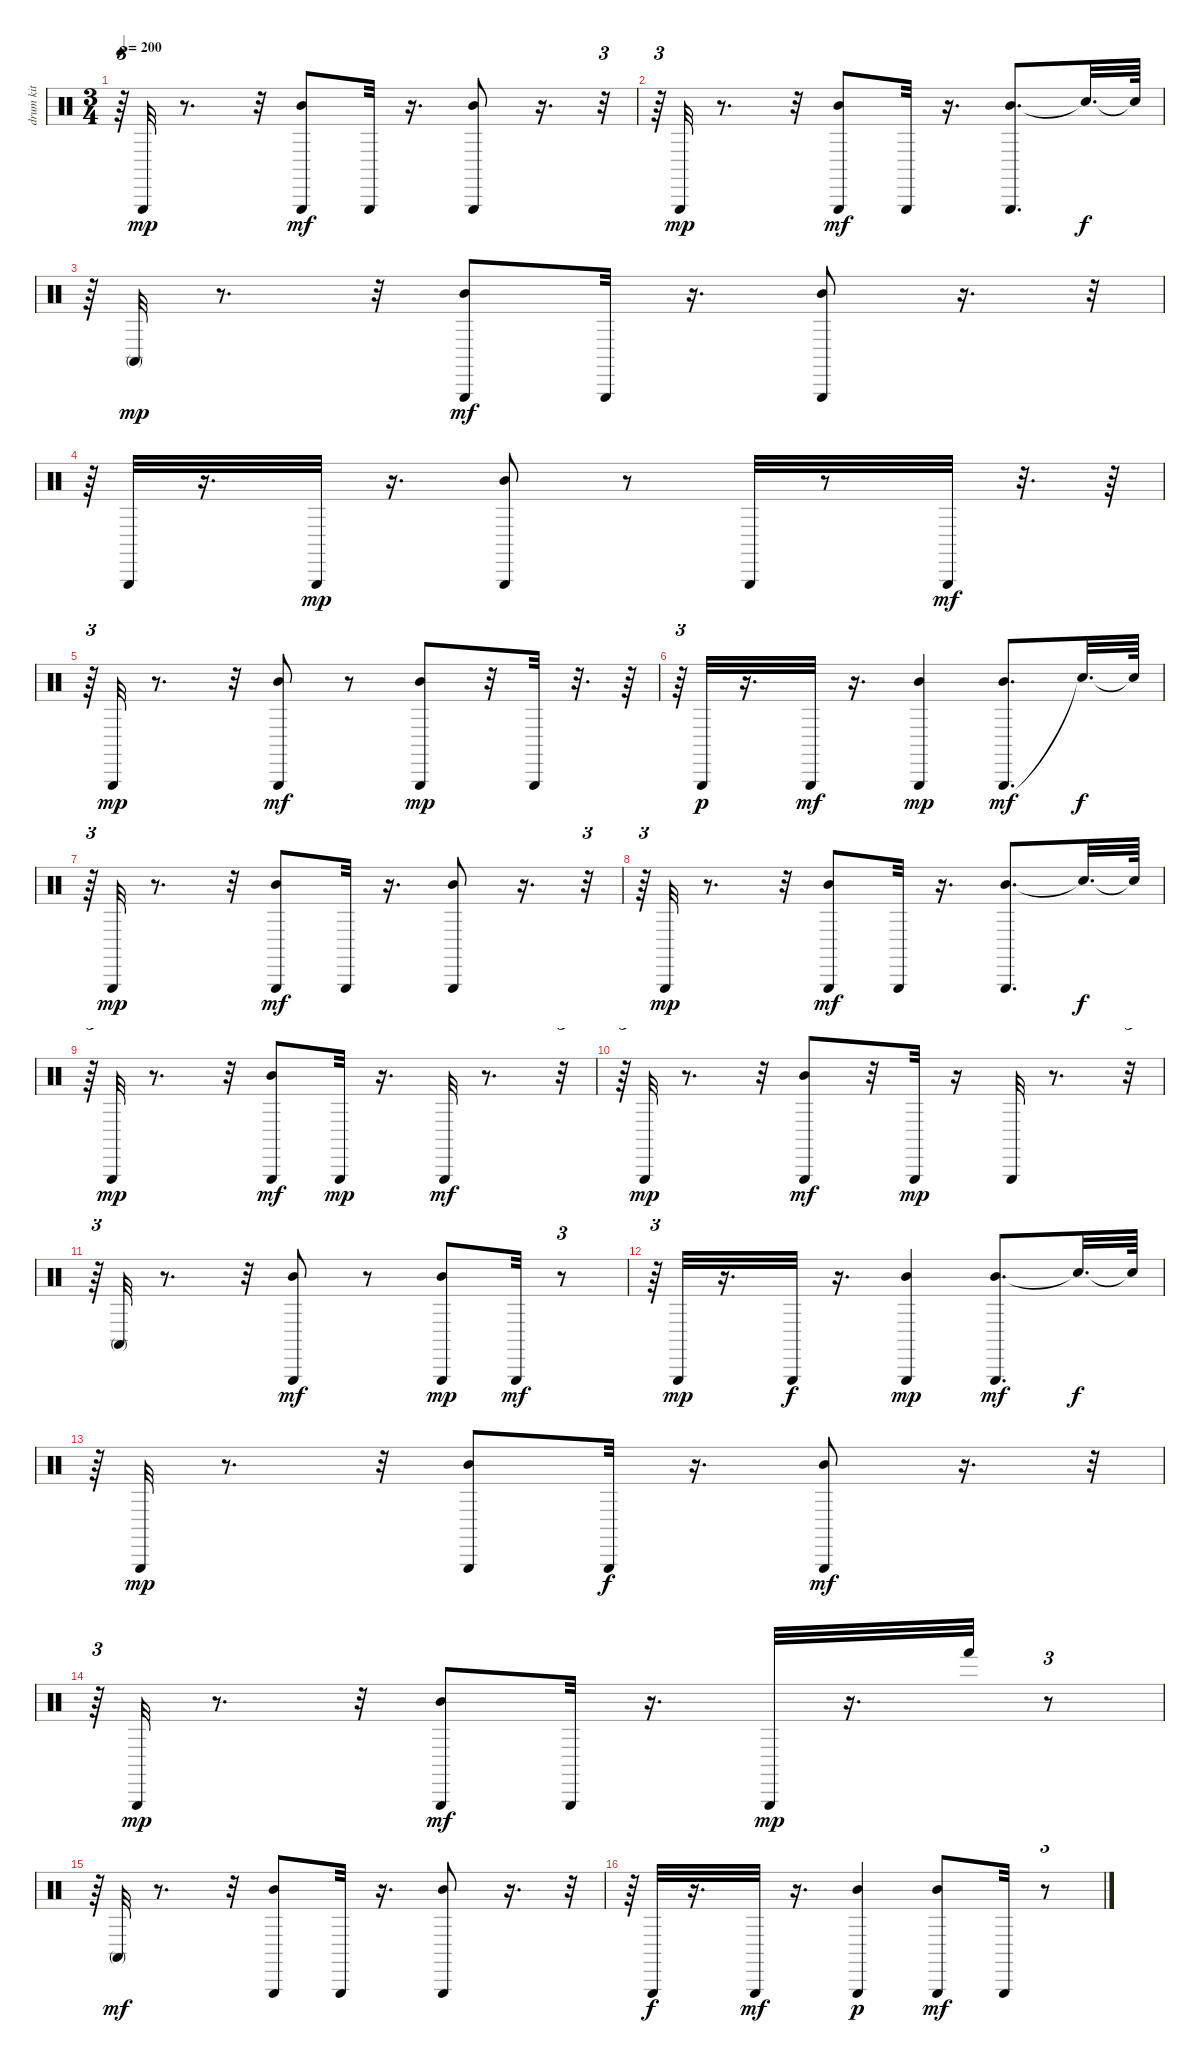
\track (" drum kit (hi-hat/cymbals)" " drum kit ") {instrument percussion}
\staff {score}
\articulation defaults
\ts (3 4)
\tempo 200
\clef neutral
\ks c
r.64{tu (3 2) dy mp} "Triangle (hit)".32 r.8{d} r.32 ("Triangle (hit)" "Mid Tom (hit)").8{dy mf} "Triangle (hit)".32 r.16{d} ("Triangle (hit)" "Mid Tom (hit)").8 r.16{d} r.32{tu (3 2)} |
r.64{tu (3 2)} "Triangle (hit)".32{dy mp} r.8{d} r.32 ("Mid Tom (hit)" "Triangle (hit)").8{dy mf} "Triangle (hit)".32 r.16{d} ("Mid Tom (hit)" "Triangle (hit)").8{d} "Snare (hit)"{t}.32{d dy f} "Snare (hit)"{t}.64 |
r.64{tu (3 2)} "Conga high (mute)".32{dy mp} r.8{d} r.32 ("Mid Tom (hit)" "Triangle (hit)").8{dy mf} "Triangle (hit)".32 r.16{d} ("Mid Tom (hit)" "Triangle (hit)").8 r.16{d} r.32{tu (3 2)} |
r.64{tu (3 2)} "Triangle (hit)".32 r.16{d} "Triangle (hit)".32{dy mp} r.16{d} ("Mid Tom (hit)" "Triangle (hit)").8 r.8 "Triangle (hit)".32 r.8 "Triangle (hit)".32{dy mf} r.32{d} r.64 |
r.64{tu (3 2)} "Triangle (hit)".32{dy mp} r.8{d} r.32 ("Mid Tom (hit)" "Triangle (hit)").8{dy mf} r.8 ("Mid Tom (hit)" "Triangle (hit)").8{dy mp} r.32 "Triangle (hit)".32 r.32{d} r.64 |
r.64{tu (3 2)} "Triangle (hit)".32{dy p} r.16{d} "Triangle (hit)".32{dy mf} r.16{d} ("Mid Tom (hit)" "Triangle (hit)").4{dy mp} ("Triangle (hit)" "Mid Tom (hit)").8{d dy mf} "Snare (hit)"{t}.32{d dy f} "Snare (hit)"{t}.64 |
r.64{tu (3 2)} "Triangle (hit)".32{dy mp} r.8{d} r.32 ("Mid Tom (hit)" "Triangle (hit)").8{dy mf} "Triangle (hit)".32 r.16{d} ("Mid Tom (hit)" "Triangle (hit)").8 r.16{d} r.32{tu (3 2)} |
r.64{tu (3 2)} "Triangle (hit)".32{dy mp} r.8{d} r.32 ("Mid Tom (hit)" "Triangle (hit)").8{dy mf} "Triangle (hit)".32 r.16{d} ("Mid Tom (hit)" "Triangle (hit)").8{d} "Snare (hit)"{t}.32{d dy f} "Snare (hit)"{t}.64 |
r.64{tu (3 2)} "Triangle (hit)".32{dy mp} r.8{d} r.32 ("Mid Tom (hit)" "Triangle (hit)").8{dy mf} "Triangle (hit)".32{dy mp} r.16{d} "Triangle (hit)".32{dy mf} r.8{d} r.32{tu (3 2)} |
r.64{tu (3 2)} "Triangle (hit)".32{dy mp} r.8{d} r.32 ("Mid Tom (hit)" "Triangle (hit)").8{dy mf} r.32 "Triangle (hit)".32{dy mp} r.16 "Triangle (hit)".32 r.8{d} r.32{tu (3 2)} |
r.64{tu (3 2)} "Conga high (mute)".32 r.8{d} r.32 ("Triangle (hit)" "Mid Tom (hit)").8{dy mf} r.8 ("Mid Tom (hit)" "Triangle (hit)").8{dy mp} "Triangle (hit)".32{dy mf} r.8{tu (3 2)} |
r.64{tu (3 2)} "Triangle (hit)".32{dy mp} r.16{d} "Triangle (hit)".32{dy f} r.16{d} ("Mid Tom (hit)" "Triangle (hit)").4{dy mp} ("Mid Tom (hit)" "Triangle (hit)").8{d dy mf} "Snare (hit)"{t}.32{d dy f} "Snare (hit)"{t}.64 |
r.64{tu (3 2)} "Triangle (hit)".32{dy mp} r.8{d} r.32 ("Mid Tom (hit)" "Triangle (hit)").8 "Triangle (hit)".32{dy f} r.16{d} ("Mid Tom (hit)" "Triangle (hit)").8{dy mf} r.16{d} r.32{tu (3 2)} |
r.64{tu (3 2)} "Triangle (hit)".32{dy mp} r.8{d} r.32 ("Mid Tom (hit)" "Triangle (hit)").8{dy mf} "Triangle (hit)".32 r.16{d} "Triangle (hit)".32{dy mp} r.16{d} "Hand (hit)".32 r.8{tu (3 2)} |
r.64{tu (3 2)} "Conga high (mute)".32{dy mf} r.8{d} r.32 ("Mid Tom (hit)" "Triangle (hit)").8 "Triangle (hit)".32 r.16{d} ("Mid Tom (hit)" "Triangle (hit)").8 r.16{d} r.32{tu (3 2)} |
r.64{tu (3 2)} "Triangle (hit)".32{dy f} r.16{d} "Triangle (hit)".32{dy mf} r.16{d} ("Mid Tom (hit)" "Triangle (hit)").4{dy p} ("Mid Tom (hit)" "Triangle (hit)").8{dy mf} "Triangle (hit)".32 r.8{tu (3 2)}
